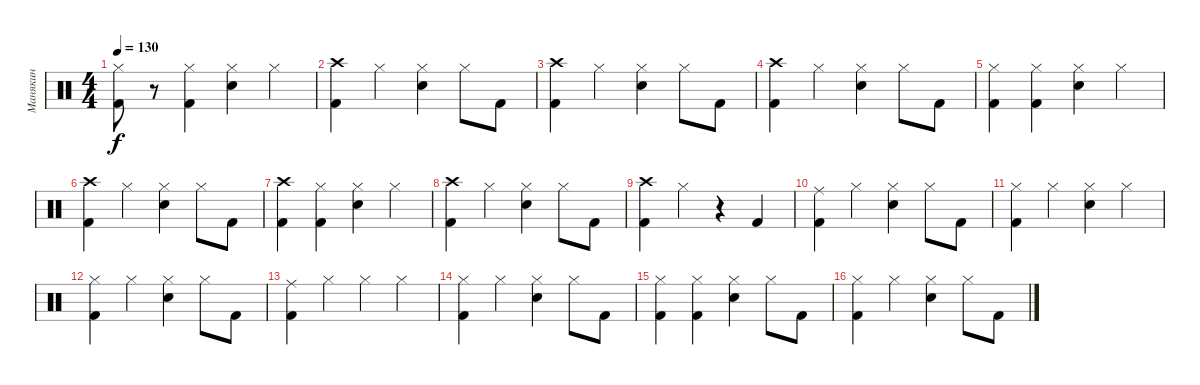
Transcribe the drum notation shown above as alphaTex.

\track ("Манякин" "Манякин") {instrument percussion}
\staff {score}
\articulation defaults
\ts (4 4)
\tempo 130
\clef neutral
\ks c
("Hi-Hat (closed)" "Kick (hit) 2").8{dy f} r.8 ("Hi-Hat (closed)" "Kick (hit) 2").4 ("Hi-Hat (closed)" "Electric Snare (hit)").4 "Hi-Hat (closed)".4 |
("Crash high (hit)" "Kick (hit) 2").4 "Hi-Hat (closed)".4 ("Hi-Hat (closed)" "Electric Snare (hit)").4 "Hi-Hat (closed)".8 "Kick (hit) 2".8 |
("Crash high (hit)" "Kick (hit) 2").4 "Hi-Hat (closed)".4 ("Hi-Hat (closed)" "Electric Snare (hit)").4 "Hi-Hat (closed)".8 "Kick (hit) 2".8 |
("Crash high (hit)" "Kick (hit) 2").4 "Hi-Hat (closed)".4 ("Hi-Hat (closed)" "Electric Snare (hit)").4 "Hi-Hat (closed)".8 "Kick (hit) 2".8 |
("Hi-Hat (closed)" "Kick (hit) 2").4 ("Hi-Hat (closed)" "Kick (hit) 2").4 ("Hi-Hat (closed)" "Electric Snare (hit)").4 "Hi-Hat (closed)".4 |
("Crash high (hit)" "Kick (hit) 2").4 "Hi-Hat (closed)".4 ("Hi-Hat (closed)" "Electric Snare (hit)").4 "Hi-Hat (closed)".8 "Kick (hit) 2".8 |
("Crash high (hit)" "Kick (hit) 2").4 ("Hi-Hat (closed)" "Kick (hit) 2").4 ("Hi-Hat (closed)" "Electric Snare (hit)").4 "Hi-Hat (closed)".4 |
("Crash high (hit)" "Kick (hit) 2").4 "Hi-Hat (closed)".4 ("Hi-Hat (closed)" "Electric Snare (hit)").4 "Hi-Hat (closed)".8 "Kick (hit) 2".8 |
("Crash high (hit)" "Kick (hit) 2").4 "Hi-Hat (closed)".4 r.4 "Kick (hit) 2".4 |
("Ride (middle)" "Kick (hit) 2").4 "Hi-Hat (closed)".4 ("Hi-Hat (closed)" "Electric Snare (hit)").4 "Hi-Hat (closed)".8 "Kick (hit) 2".8 |
("Hi-Hat (closed)" "Kick (hit) 2").4 "Hi-Hat (closed)".4 ("Hi-Hat (closed)" "Electric Snare (hit)").4 "Hi-Hat (closed)".4 |
("Hi-Hat (closed)" "Kick (hit) 2").4 "Hi-Hat (closed)".4 ("Hi-Hat (closed)" "Electric Snare (hit)").4 "Hi-Hat (closed)".8 "Kick (hit) 2".8 |
("Ride (middle)" "Kick (hit) 2").4 "Hi-Hat (closed)".4 "Hi-Hat (closed)".4 "Hi-Hat (closed)".4 |
("Hi-Hat (closed)" "Kick (hit) 2").4 "Hi-Hat (closed)".4 ("Hi-Hat (closed)" "Electric Snare (hit)").4 "Hi-Hat (closed)".8 "Kick (hit) 2".8 |
("Hi-Hat (closed)" "Kick (hit) 2").4 ("Hi-Hat (closed)" "Kick (hit) 2").4 ("Hi-Hat (closed)" "Electric Snare (hit)").4 "Hi-Hat (closed)".8 "Kick (hit) 2".8 |
("Hi-Hat (closed)" "Kick (hit) 2").4 "Hi-Hat (closed)".4 ("Hi-Hat (closed)" "Electric Snare (hit)").4 "Hi-Hat (closed)".8 "Kick (hit) 2".8
